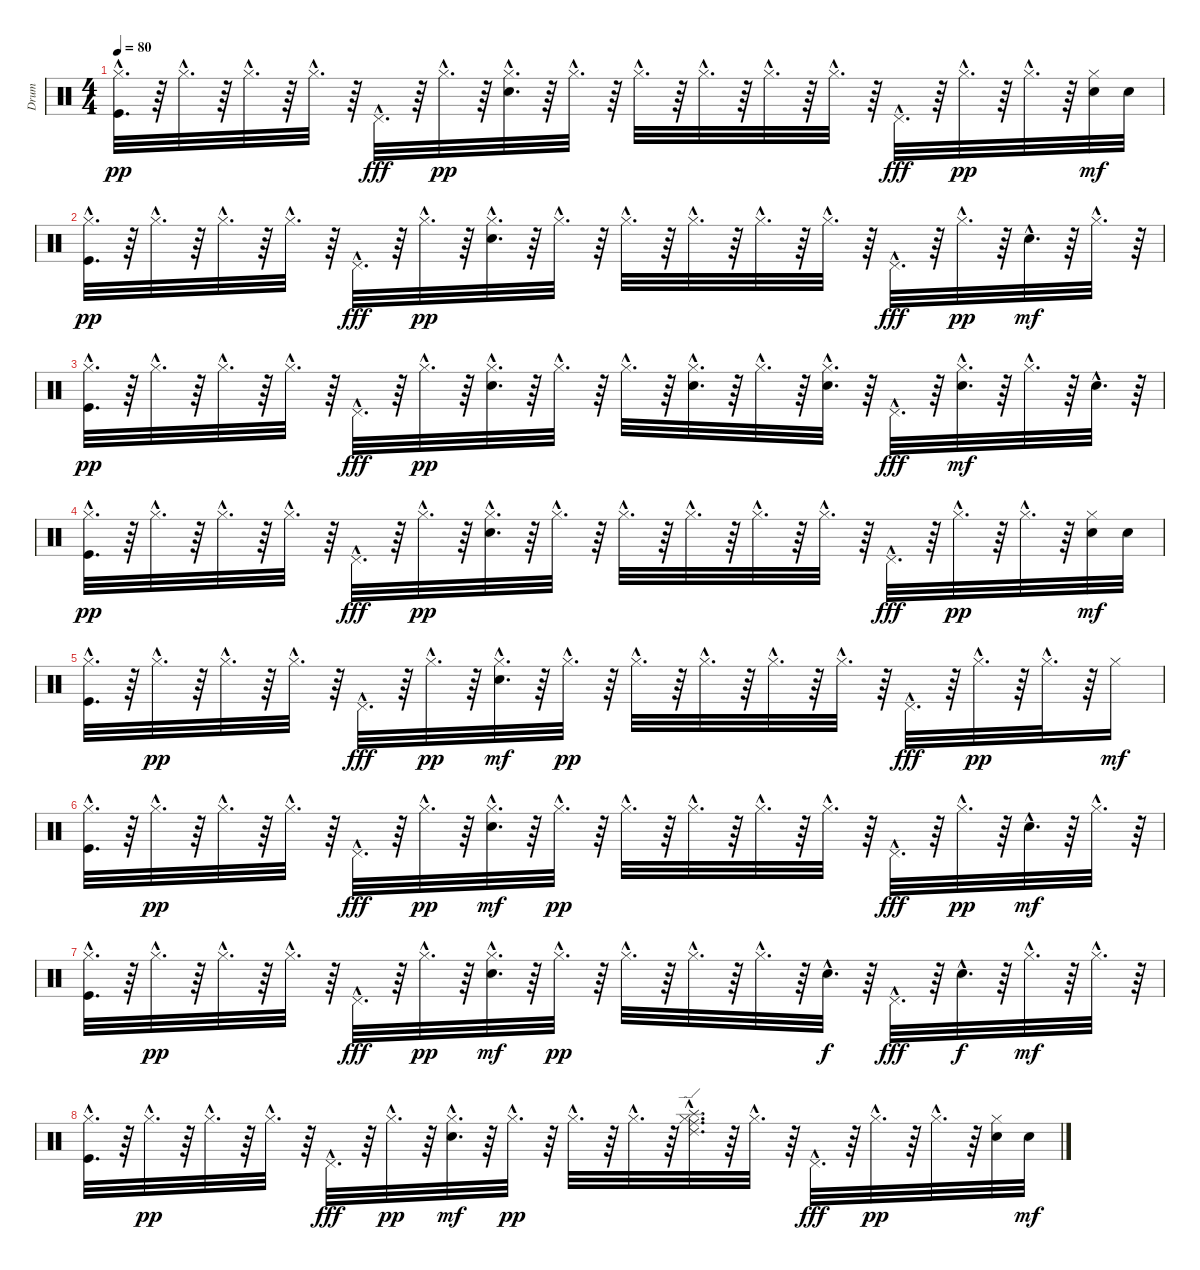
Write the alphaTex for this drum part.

\track ("Drum" "Drum") {instrument percussion}
\staff {score}
\articulation defaults
\ts (4 4)
\tempo 80
\clef neutral
\ks c
("Kick (hit)"{hac} "Hi-Hat (closed)"{hac}).32{d dy pp} r.64 "Hi-Hat (closed)"{hac}.32{d} r.64 "Hi-Hat (closed)"{hac}.32{d} r.64 "Hi-Hat (closed)"{hac}.32{d} r.64 "Pedal Hi-Hat (hit)"{hac}.32{d dy fff} r.64 "Hi-Hat (closed)"{hac}.32{d dy pp} r.64 ("Electric Snare (hit)"{hac} "Hi-Hat (closed)"{hac}).32{d} r.64 "Hi-Hat (closed)"{hac}.32{d} r.64 "Hi-Hat (closed)"{hac}.32{d} r.64 "Hi-Hat (closed)"{hac}.32{d} r.64 "Hi-Hat (closed)"{hac}.32{d} r.64 "Hi-Hat (closed)"{hac}.32{d} r.64 "Pedal Hi-Hat (hit)"{hac}.32{d dy fff} r.64 "Hi-Hat (closed)"{hac}.32{d dy pp} r.64 "Hi-Hat (closed)"{hac}.32{d} r.64 ("Hi-Hat (closed)" "Electric Snare (hit)").32{dy mf} "Electric Snare (hit)".32 |
("Kick (hit)"{hac} "Hi-Hat (closed)"{hac}).32{d dy pp} r.64 "Hi-Hat (closed)"{hac}.32{d} r.64 "Hi-Hat (closed)"{hac}.32{d} r.64 "Hi-Hat (closed)"{hac}.32{d} r.64 "Pedal Hi-Hat (hit)"{hac}.32{d dy fff} r.64 "Hi-Hat (closed)"{hac}.32{d dy pp} r.64 ("Electric Snare (hit)"{hac} "Hi-Hat (closed)"{hac}).32{d} r.64 "Hi-Hat (closed)"{hac}.32{d} r.64 "Hi-Hat (closed)"{hac}.32{d} r.64 "Hi-Hat (closed)"{hac}.32{d} r.64 "Hi-Hat (closed)"{hac}.32{d} r.64 "Hi-Hat (closed)"{hac}.32{d} r.64 "Pedal Hi-Hat (hit)"{hac}.32{d dy fff} r.64 "Hi-Hat (closed)"{hac}.32{d dy pp} r.64 "Electric Snare (hit)"{hac}.32{d dy mf} r.64 "Hi-Hat (closed)"{hac}.32{d} r.64 |
("Kick (hit)"{hac} "Hi-Hat (closed)"{hac}).32{d dy pp} r.64 "Hi-Hat (closed)"{hac}.32{d} r.64 "Hi-Hat (closed)"{hac}.32{d} r.64 "Hi-Hat (closed)"{hac}.32{d} r.64 "Pedal Hi-Hat (hit)"{hac}.32{d dy fff} r.64 "Hi-Hat (closed)"{hac}.32{d dy pp} r.64 ("Electric Snare (hit)"{hac} "Hi-Hat (closed)"{hac}).32{d} r.64 "Hi-Hat (closed)"{hac}.32{d} r.64 "Hi-Hat (closed)"{hac}.32{d} r.64 ("Electric Snare (hit)"{hac} "Hi-Hat (closed)"{hac}).32{d} r.64 "Hi-Hat (closed)"{hac}.32{d} r.64 ("Electric Snare (hit)"{hac} "Hi-Hat (closed)"{hac}).32{d} r.64 "Pedal Hi-Hat (hit)"{hac}.32{d dy fff} r.64 ("Electric Snare (hit)"{hac} "Hi-Hat (closed)"{hac}).32{d dy mf} r.64 "Hi-Hat (closed)"{hac}.32{d} r.64 "Electric Snare (hit)"{hac}.32{d} r.64 |
("Kick (hit)"{hac} "Hi-Hat (closed)"{hac}).32{d dy pp} r.64 "Hi-Hat (closed)"{hac}.32{d} r.64 "Hi-Hat (closed)"{hac}.32{d} r.64 "Hi-Hat (closed)"{hac}.32{d} r.64 "Pedal Hi-Hat (hit)"{hac}.32{d dy fff} r.64 "Hi-Hat (closed)"{hac}.32{d dy pp} r.64 ("Electric Snare (hit)"{hac} "Hi-Hat (closed)"{hac}).32{d} r.64 "Hi-Hat (closed)"{hac}.32{d} r.64 "Hi-Hat (closed)"{hac}.32{d} r.64 "Hi-Hat (closed)"{hac}.32{d} r.64 "Hi-Hat (closed)"{hac}.32{d} r.64 "Hi-Hat (closed)"{hac}.32{d} r.64 "Pedal Hi-Hat (hit)"{hac}.32{d dy fff} r.64 "Hi-Hat (closed)"{hac}.32{d dy pp} r.64 "Hi-Hat (closed)"{hac}.32{d} r.64 ("Hi-Hat (closed)" "Electric Snare (hit)").32{dy mf} "Electric Snare (hit)".32 |
("Hi-Hat (closed)"{hac} "Kick (hit)"{hac}).32{d} r.64 "Hi-Hat (closed)"{hac}.32{d dy pp} r.64 "Hi-Hat (closed)"{hac}.32{d} r.64 "Hi-Hat (closed)"{hac}.32{d} r.64 "Pedal Hi-Hat (hit)"{hac}.32{d dy fff} r.64 "Hi-Hat (closed)"{hac}.32{d dy pp} r.64 ("Hi-Hat (closed)"{hac} "Electric Snare (hit)"{hac}).32{d dy mf} r.64 "Hi-Hat (closed)"{hac}.32{d dy pp} r.64 "Hi-Hat (closed)"{hac}.32{d} r.64 "Hi-Hat (closed)"{hac}.32{d} r.64 "Hi-Hat (closed)"{hac}.32{d} r.64 "Hi-Hat (closed)"{hac}.32{d} r.64 "Pedal Hi-Hat (hit)"{hac}.32{d dy fff} r.64 "Hi-Hat (closed)"{hac}.32{d dy pp} r.64 "Hi-Hat (closed)"{hac}.32{d} r.64 "Hi-Hat (closed)".16{dy mf} |
("Hi-Hat (closed)"{hac} "Kick (hit)"{hac}).32{d} r.64 "Hi-Hat (closed)"{hac}.32{d dy pp} r.64 "Hi-Hat (closed)"{hac}.32{d} r.64 "Hi-Hat (closed)"{hac}.32{d} r.64 "Pedal Hi-Hat (hit)"{hac}.32{d dy fff} r.64 "Hi-Hat (closed)"{hac}.32{d dy pp} r.64 ("Hi-Hat (closed)"{hac} "Electric Snare (hit)"{hac}).32{d dy mf} r.64 "Hi-Hat (closed)"{hac}.32{d dy pp} r.64 "Hi-Hat (closed)"{hac}.32{d} r.64 "Hi-Hat (closed)"{hac}.32{d} r.64 "Hi-Hat (closed)"{hac}.32{d} r.64 "Hi-Hat (closed)"{hac}.32{d} r.64 "Pedal Hi-Hat (hit)"{hac}.32{d dy fff} r.64 "Hi-Hat (closed)"{hac}.32{d dy pp} r.64 "Electric Snare (hit)"{hac}.32{d dy mf} r.64 "Hi-Hat (closed)"{hac}.32{d} r.64 |
("Hi-Hat (closed)"{hac} "Kick (hit)"{hac}).32{d} r.64 "Hi-Hat (closed)"{hac}.32{d dy pp} r.64 "Hi-Hat (closed)"{hac}.32{d} r.64 "Hi-Hat (closed)"{hac}.32{d} r.64 "Pedal Hi-Hat (hit)"{hac}.32{d dy fff} r.64 "Hi-Hat (closed)"{hac}.32{d dy pp} r.64 ("Hi-Hat (closed)"{hac} "Electric Snare (hit)"{hac}).32{d dy mf} r.64 "Hi-Hat (closed)"{hac}.32{d dy pp} r.64 "Hi-Hat (closed)"{hac}.32{d} r.64 "Hi-Hat (closed)"{hac}.32{d} r.64 "Hi-Hat (closed)"{hac}.32{d} r.64 "Electric Snare (hit)"{hac}.32{d dy f} r.64 "Pedal Hi-Hat (hit)"{hac}.32{d dy fff} r.64 "Electric Snare (hit)"{hac}.32{d dy f} r.64 "Hi-Hat (closed)"{hac}.32{d dy mf} r.64 "Hi-Hat (closed)"{hac}.32{d} r.64 |
("Hi-Hat (closed)"{hac} "Kick (hit)"{hac}).32{d} r.64 "Hi-Hat (closed)"{hac}.32{d dy pp} r.64 "Hi-Hat (closed)"{hac}.32{d} r.64 "Hi-Hat (closed)"{hac}.32{d} r.64 "Pedal Hi-Hat (hit)"{hac}.32{d dy fff} r.64 "Hi-Hat (closed)"{hac}.32{d dy pp} r.64 ("Hi-Hat (closed)"{hac} "Electric Snare (hit)"{hac}).32{d dy mf} r.64 "Hi-Hat (closed)"{hac}.32{d dy pp} r.64 "Hi-Hat (closed)"{hac}.32{d} r.64 "Hi-Hat (closed)"{hac}.32{d} r.64 ("Ride (middle)"{hac} "Ride (edge) 2"{hac} "Splash (hit)"{hac} "Hi-Hat (closed)"{hac}).32{d} r.64 "Hi-Hat (closed)"{hac}.32{d} r.64 "Pedal Hi-Hat (hit)"{hac}.32{d dy fff} r.64 "Hi-Hat (closed)"{hac}.32{d dy pp} r.64 "Hi-Hat (closed)"{hac}.32{d} r.64 ("Electric Snare (hit)" "Hi-Hat (closed)").32 "Electric Snare (hit)".32{dy mf}
